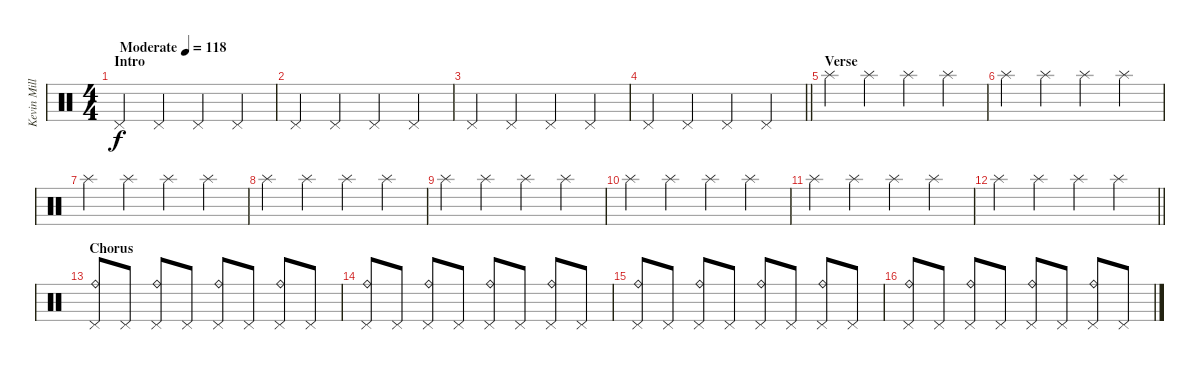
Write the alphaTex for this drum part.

\track ("Kevin Miller (Drums)" "Kevin Mill") {instrument percussion}
\staff {score}
\articulation defaults
\ts (4 4)
\section ("" "Intro")
\tempo (118 "Moderate")
\clef neutral
\ks c "Pedal Hi-Hat (hit)".4{dy f} "Pedal Hi-Hat (hit)".4 "Pedal Hi-Hat (hit)".4 "Pedal Hi-Hat (hit)".4
|
"Pedal Hi-Hat (hit)".4 "Pedal Hi-Hat (hit)".4 "Pedal Hi-Hat (hit)".4 "Pedal Hi-Hat (hit)".4 |
"Pedal Hi-Hat (hit)".4 "Pedal Hi-Hat (hit)".4 "Pedal Hi-Hat (hit)".4 "Pedal Hi-Hat (hit)".4 |
\barLineRight lightlight "Pedal Hi-Hat (hit)".4 "Pedal Hi-Hat (hit)".4 "Pedal Hi-Hat (hit)".4 "Pedal Hi-Hat (hit)".4
|
\section ("" "Verse")
"Splash (hit)".4 "Splash (hit)".4 "Splash (hit)".4 "Splash (hit)".4 |
"Splash (hit)".4 "Splash (hit)".4 "Splash (hit)".4 "Splash (hit)".4 |
"Splash (hit)".4 "Splash (hit)".4 "Splash (hit)".4 "Splash (hit)".4 |
"Splash (hit)".4 "Splash (hit)".4 "Splash (hit)".4 "Splash (hit)".4 |
"Splash (hit)".4 "Splash (hit)".4 "Splash (hit)".4 "Splash (hit)".4 |
"Splash (hit)".4 "Splash (hit)".4 "Splash (hit)".4 "Splash (hit)".4 |
"Splash (hit)".4 "Splash (hit)".4 "Splash (hit)".4 "Splash (hit)".4 |
\barLineRight lightlight "Splash (hit)".4 "Splash (hit)".4 "Splash (hit)".4 "Splash (hit)".4
|
\section ("" "Chorus")
("Pedal Hi-Hat (hit)" "Ride (bell)").8 "Pedal Hi-Hat (hit)".8 ("Pedal Hi-Hat (hit)" "Ride (bell)").8 "Pedal Hi-Hat (hit)".8 ("Pedal Hi-Hat (hit)" "Ride (bell)").8 "Pedal Hi-Hat (hit)".8 ("Pedal Hi-Hat (hit)" "Ride (bell)").8 "Pedal Hi-Hat (hit)".8 |
("Pedal Hi-Hat (hit)" "Ride (bell)").8 "Pedal Hi-Hat (hit)".8 ("Pedal Hi-Hat (hit)" "Ride (bell)").8 "Pedal Hi-Hat (hit)".8 ("Pedal Hi-Hat (hit)" "Ride (bell)").8 "Pedal Hi-Hat (hit)".8 ("Pedal Hi-Hat (hit)" "Ride (bell)").8 "Pedal Hi-Hat (hit)".8 |
("Pedal Hi-Hat (hit)" "Ride (bell)").8 "Pedal Hi-Hat (hit)".8 ("Pedal Hi-Hat (hit)" "Ride (bell)").8 "Pedal Hi-Hat (hit)".8 ("Pedal Hi-Hat (hit)" "Ride (bell)").8 "Pedal Hi-Hat (hit)".8 ("Pedal Hi-Hat (hit)" "Ride (bell)").8 "Pedal Hi-Hat (hit)".8 |
("Pedal Hi-Hat (hit)" "Ride (bell)").8 "Pedal Hi-Hat (hit)".8 ("Pedal Hi-Hat (hit)" "Ride (bell)").8 "Pedal Hi-Hat (hit)".8 ("Pedal Hi-Hat (hit)" "Ride (bell)").8 "Pedal Hi-Hat (hit)".8 ("Pedal Hi-Hat (hit)" "Ride (bell)").8 "Pedal Hi-Hat (hit)".8
